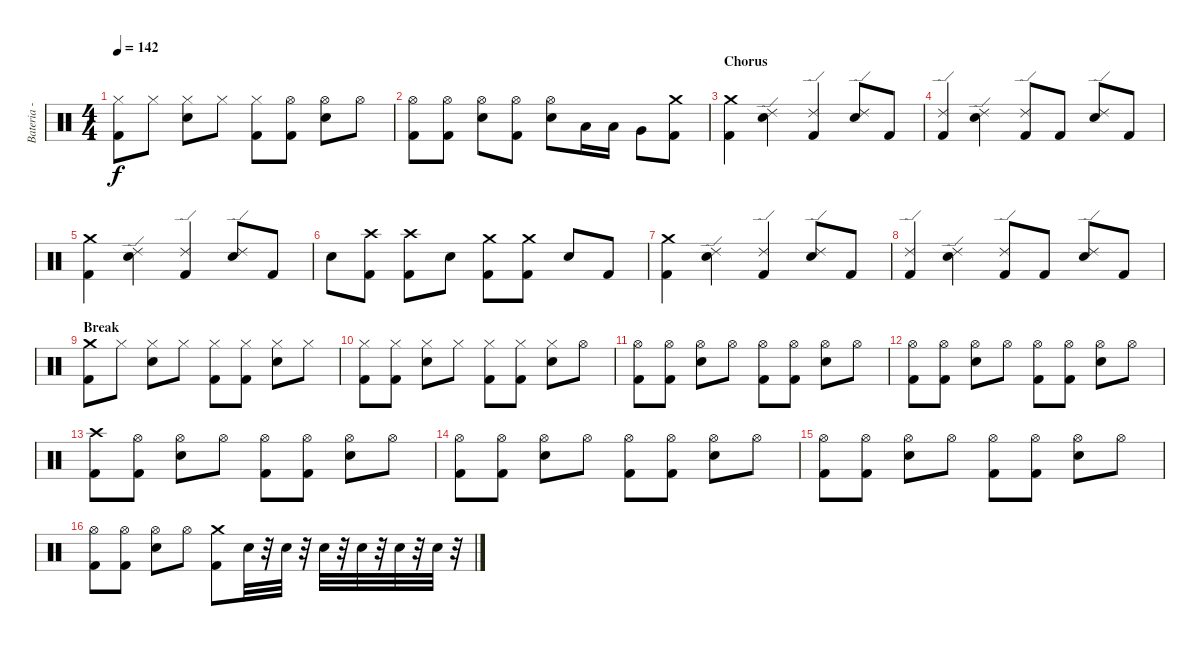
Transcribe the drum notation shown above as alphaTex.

\track ("Bateria - Larzon" "Bateria - ") {instrument percussion}
\staff {score}
\articulation defaults
\ts (4 4)
\tempo 142
\clef neutral
\ks c
("Kick (hit) 2" "Hi-Hat (closed)").8{dy f} "Hi-Hat (closed)".8 ("Hi-Hat (closed)" "Snare (hit) 2").8 "Hi-Hat (closed)".8 ("Hi-Hat (closed)" "Kick (hit) 2").8 ("Kick (hit) 2" "Hi-Hat (open)").8 ("Snare (hit) 2" "Hi-Hat (open)").8 "Hi-Hat (open)".8 |
("Kick (hit) 2" "Hi-Hat (open)").8 ("Kick (hit) 2" "Hi-Hat (open)").8 ("Snare (hit) 2" "Hi-Hat (open)").8 ("Kick (hit) 2" "Hi-Hat (open)").8 ("Snare (hit) 2" "Hi-Hat (open)").8 "Low Tom (hit)".16 "Low Tom (hit)".16 "Very Low Tom (hit)".8 ("Kick (hit) 2" "Crash medium (hit)").8 |
\section ("" "Chorus")
("Crash medium (hit)" "Kick (hit) 2").4 ("Snare (hit) 2" "Ride (edge) 2").4 ("Kick (hit) 2" "Ride (edge) 2").4 ("Snare (hit) 2" "Ride (edge) 2").8 "Kick (hit) 2".8 |
("Kick (hit) 2" "Ride (edge) 2").4 ("Snare (hit) 2" "Ride (edge) 2").4 ("Kick (hit) 2" "Ride (edge) 2").8 "Kick (hit) 2".8 ("Snare (hit) 2" "Ride (edge) 2").8 "Kick (hit) 2".8 |
("Crash medium (hit)" "Kick (hit) 2").4 ("Snare (hit) 2" "Ride (edge) 2").4 ("Kick (hit) 2" "Ride (edge) 2").4 ("Snare (hit) 2" "Ride (edge) 2").8 "Kick (hit) 2".8 |
"Snare (hit) 2".8 ("Crash high (hit)" "Kick (hit) 2").8 ("Crash high (hit)" "Kick (hit) 2").8 "Snare (hit) 2".8 ("Crash medium (hit)" "Kick (hit) 2").8 ("Kick (hit) 2" "Crash medium (hit)").8 "Snare (hit) 2".8 "Kick (hit) 2".8 |
("Crash medium (hit)" "Kick (hit) 2").4 ("Snare (hit) 2" "Ride (edge) 2").4 ("Kick (hit) 2" "Ride (edge) 2").4 ("Snare (hit) 2" "Ride (edge) 2").8 "Kick (hit) 2".8 |
("Kick (hit) 2" "Ride (edge) 2").4 ("Snare (hit) 2" "Ride (edge) 2").4 ("Kick (hit) 2" "Ride (edge) 2").8 "Kick (hit) 2".8 ("Snare (hit) 2" "Ride (edge) 2").8 "Kick (hit) 2".8 |
\section ("" "Break")
("Crash medium (hit)" "Kick (hit) 2").8 "Hi-Hat (closed)".8 ("Hi-Hat (closed)" "Snare (hit) 2").8 "Hi-Hat (closed)".8 ("Hi-Hat (closed)" "Kick (hit) 2").8 ("Hi-Hat (closed)" "Kick (hit) 2").8 ("Hi-Hat (closed)" "Snare (hit) 2").8 "Hi-Hat (closed)".8 |
("Hi-Hat (closed)" "Kick (hit) 2").8 ("Hi-Hat (closed)" "Kick (hit) 2").8 ("Hi-Hat (closed)" "Snare (hit) 2").8 "Hi-Hat (closed)".8 ("Hi-Hat (closed)" "Kick (hit) 2").8 ("Hi-Hat (closed)" "Kick (hit) 2").8 ("Hi-Hat (closed)" "Snare (hit) 2").8 "Hi-Hat (open)".8 |
("Kick (hit) 2" "Hi-Hat (open)").8 ("Kick (hit) 2" "Hi-Hat (open)").8 ("Snare (hit) 2" "Hi-Hat (open)").8 "Hi-Hat (open)".8 ("Kick (hit) 2" "Hi-Hat (open)").8 ("Kick (hit) 2" "Hi-Hat (open)").8 ("Snare (hit) 2" "Hi-Hat (open)").8 "Hi-Hat (open)".8 |
("Kick (hit) 2" "Hi-Hat (open)").8 ("Kick (hit) 2" "Hi-Hat (open)").8 ("Snare (hit) 2" "Hi-Hat (open)").8 "Hi-Hat (open)".8 ("Kick (hit) 2" "Hi-Hat (open)").8 ("Kick (hit) 2" "Hi-Hat (open)").8 ("Snare (hit) 2" "Hi-Hat (open)").8 "Hi-Hat (open)".8 |
("Kick (hit) 2" "Crash high (hit)").8 ("Kick (hit) 2" "Hi-Hat (open)").8 ("Snare (hit) 2" "Hi-Hat (open)").8 "Hi-Hat (open)".8 ("Kick (hit) 2" "Hi-Hat (open)").8 ("Kick (hit) 2" "Hi-Hat (open)").8 ("Snare (hit) 2" "Hi-Hat (open)").8 "Hi-Hat (open)".8 |
("Kick (hit) 2" "Hi-Hat (open)").8 ("Kick (hit) 2" "Hi-Hat (open)").8 ("Snare (hit) 2" "Hi-Hat (open)").8 "Hi-Hat (open)".8 ("Kick (hit) 2" "Hi-Hat (open)").8 ("Kick (hit) 2" "Hi-Hat (open)").8 ("Snare (hit) 2" "Hi-Hat (open)").8 "Hi-Hat (open)".8 |
("Kick (hit) 2" "Hi-Hat (open)").8 ("Kick (hit) 2" "Hi-Hat (open)").8 ("Snare (hit) 2" "Hi-Hat (open)").8 "Hi-Hat (open)".8 ("Kick (hit) 2" "Hi-Hat (open)").8 ("Kick (hit) 2" "Hi-Hat (open)").8 ("Snare (hit) 2" "Hi-Hat (open)").8 "Hi-Hat (open)".8 |
("Kick (hit) 2" "Hi-Hat (open)").8 ("Kick (hit) 2" "Hi-Hat (open)").8 ("Snare (hit) 2" "Hi-Hat (open)").8 "Hi-Hat (open)".8 ("Kick (hit) 2" "Crash medium (hit)").8 "Snare (hit) 2".32 r.32 "Snare (hit) 2".32 r.32 "Snare (hit) 2".32 r.32 "Snare (hit) 2".32 r.32 "Snare (hit) 2".32 r.32 "Snare (hit) 2".32 r.32
